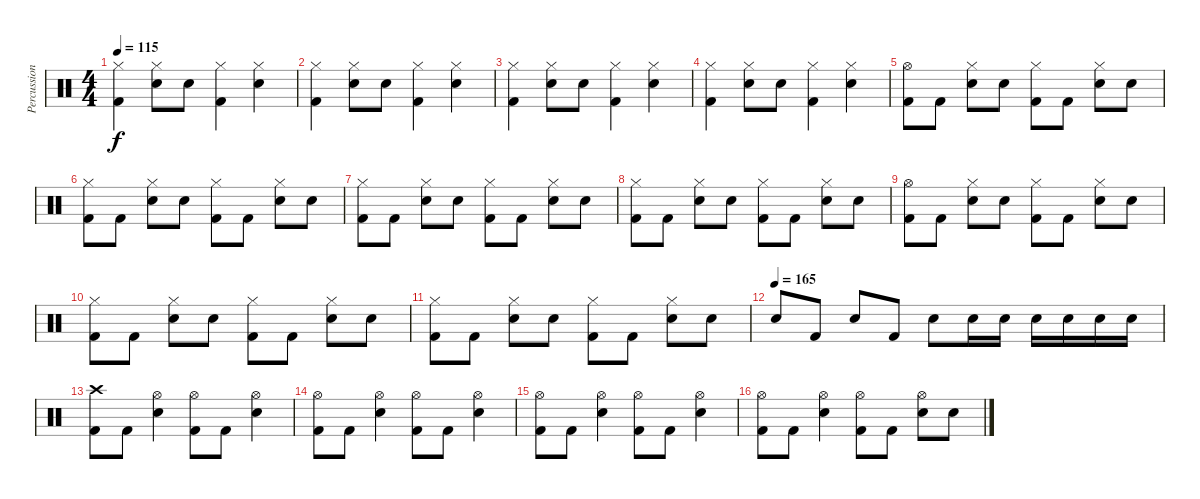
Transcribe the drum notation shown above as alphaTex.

\track ("Percussion" "Percussion") {instrument percussion}
\staff {score}
\articulation defaults
\ts (4 4)
\tempo 115
\clef neutral
\ks c
("Hi-Hat (closed)" "Kick (hit) 2").4{dy f} ("Hi-Hat (closed)" "Snare (hit) 2").8 "Snare (hit) 2".8 ("Hi-Hat (closed)" "Kick (hit) 2").4 ("Hi-Hat (closed)" "Snare (hit) 2").4 |
("Hi-Hat (closed)" "Kick (hit) 2").4 ("Hi-Hat (closed)" "Snare (hit) 2").8 "Snare (hit) 2".8 ("Hi-Hat (closed)" "Kick (hit) 2").4 ("Hi-Hat (closed)" "Snare (hit) 2").4 |
("Hi-Hat (closed)" "Kick (hit) 2").4 ("Hi-Hat (closed)" "Snare (hit) 2").8 "Snare (hit) 2".8 ("Hi-Hat (closed)" "Kick (hit) 2").4 ("Hi-Hat (closed)" "Snare (hit) 2").4 |
("Hi-Hat (closed)" "Kick (hit) 2").4 ("Hi-Hat (closed)" "Snare (hit) 2").8 "Snare (hit) 2".8 ("Hi-Hat (closed)" "Kick (hit) 2").4 ("Hi-Hat (closed)" "Snare (hit) 2").4 |
("Hi-Hat (open)" "Kick (hit) 2").8 "Kick (hit) 2".8 ("Hi-Hat (closed)" "Snare (hit) 2").8 "Snare (hit) 2".8 ("Hi-Hat (closed)" "Kick (hit) 2").8 "Kick (hit) 2".8 ("Hi-Hat (closed)" "Snare (hit) 2").8 "Snare (hit) 2".8 |
("Hi-Hat (closed)" "Kick (hit) 2").8 "Kick (hit) 2".8 ("Hi-Hat (closed)" "Snare (hit) 2").8 "Snare (hit) 2".8 ("Hi-Hat (closed)" "Kick (hit) 2").8 "Kick (hit) 2".8 ("Hi-Hat (closed)" "Snare (hit) 2").8 "Snare (hit) 2".8 |
("Hi-Hat (closed)" "Kick (hit) 2").8 "Kick (hit) 2".8 ("Hi-Hat (closed)" "Snare (hit) 2").8 "Snare (hit) 2".8 ("Hi-Hat (closed)" "Kick (hit) 2").8 "Kick (hit) 2".8 ("Hi-Hat (closed)" "Snare (hit) 2").8 "Snare (hit) 2".8 |
("Hi-Hat (closed)" "Kick (hit) 2").8 "Kick (hit) 2".8 ("Hi-Hat (closed)" "Snare (hit) 2").8 "Snare (hit) 2".8 ("Hi-Hat (closed)" "Kick (hit) 2").8 "Kick (hit) 2".8 ("Hi-Hat (closed)" "Snare (hit) 2").8 "Snare (hit) 2".8 |
("Hi-Hat (open)" "Kick (hit) 2").8 "Kick (hit) 2".8 ("Hi-Hat (closed)" "Snare (hit) 2").8 "Snare (hit) 2".8 ("Hi-Hat (closed)" "Kick (hit) 2").8 "Kick (hit) 2".8 ("Hi-Hat (closed)" "Snare (hit) 2").8 "Snare (hit) 2".8 |
("Hi-Hat (closed)" "Kick (hit) 2").8 "Kick (hit) 2".8 ("Hi-Hat (closed)" "Snare (hit) 2").8 "Snare (hit) 2".8 ("Hi-Hat (closed)" "Kick (hit) 2").8 "Kick (hit) 2".8 ("Hi-Hat (closed)" "Snare (hit) 2").8 "Snare (hit) 2".8 |
("Hi-Hat (closed)" "Kick (hit) 2").8 "Kick (hit) 2".8 ("Hi-Hat (closed)" "Snare (hit) 2").8 "Snare (hit) 2".8 ("Hi-Hat (closed)" "Kick (hit) 2").8 "Kick (hit) 2".8 ("Hi-Hat (closed)" "Snare (hit) 2").8 "Snare (hit) 2".8 |
\tempo (165)
"Snare (hit) 2".8 "Kick (hit) 2".8 "Snare (hit) 2".8 "Kick (hit) 2".8 "Snare (hit) 2".8 "Snare (hit) 2".16 "Snare (hit) 2".16 "Snare (hit) 2".16 "Snare (hit) 2".16 "Snare (hit) 2".16 "Snare (hit) 2".16 |
("Crash high (hit)" "Kick (hit) 2").8 "Kick (hit) 2".8 ("Hi-Hat (open)" "Snare (hit) 2").4 ("Hi-Hat (open)" "Kick (hit) 2").8 "Kick (hit) 2".8 ("Hi-Hat (open)" "Snare (hit) 2").4 |
("Hi-Hat (open)" "Kick (hit) 2").8 "Kick (hit) 2".8 ("Hi-Hat (open)" "Snare (hit) 2").4 ("Hi-Hat (open)" "Kick (hit) 2").8 "Kick (hit) 2".8 ("Hi-Hat (open)" "Snare (hit) 2").4 |
("Hi-Hat (open)" "Kick (hit) 2").8 "Kick (hit) 2".8 ("Hi-Hat (open)" "Snare (hit) 2").4 ("Hi-Hat (open)" "Kick (hit) 2").8 "Kick (hit) 2".8 ("Hi-Hat (open)" "Snare (hit) 2").4 |
("Hi-Hat (open)" "Kick (hit) 2").8 "Kick (hit) 2".8 ("Hi-Hat (open)" "Snare (hit) 2").4 ("Hi-Hat (open)" "Kick (hit) 2").8 "Kick (hit) 2".8 ("Hi-Hat (open)" "Snare (hit) 2").8 "Snare (hit) 2".8
